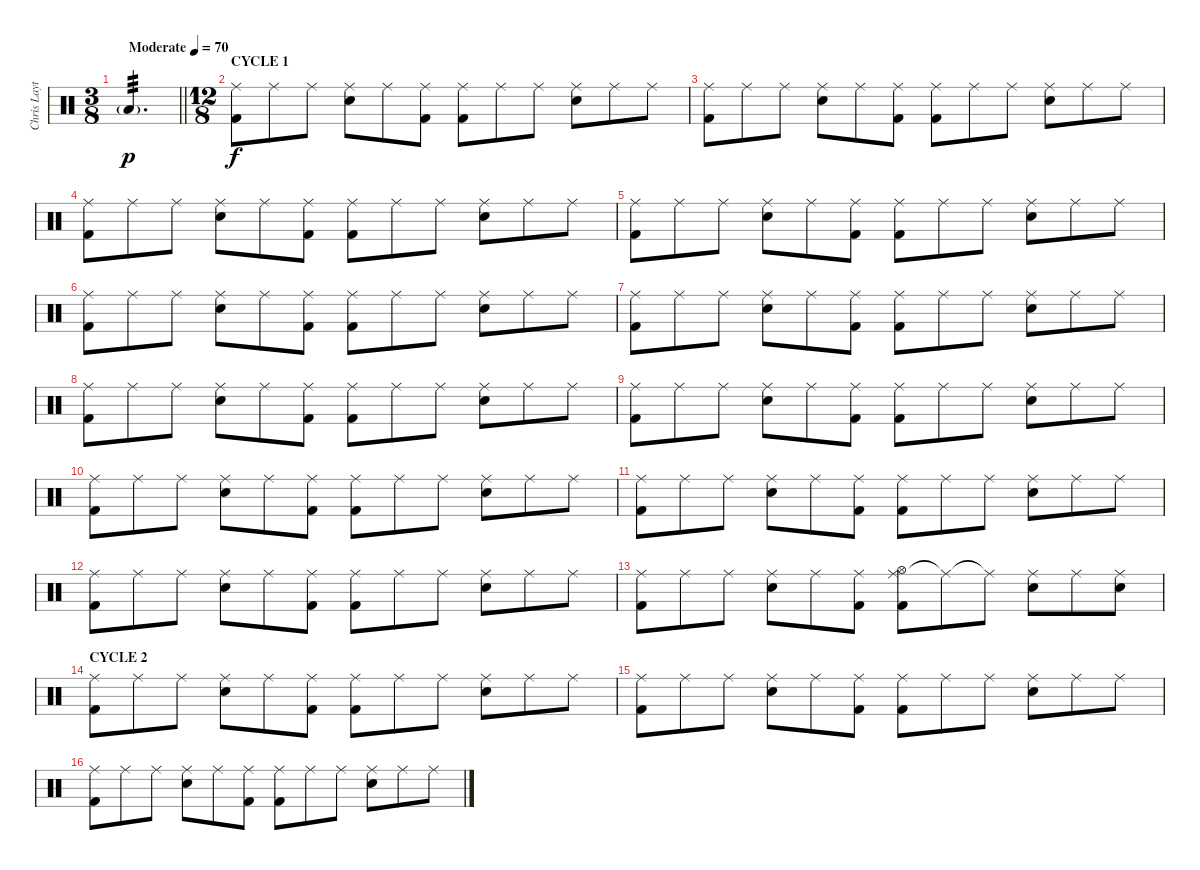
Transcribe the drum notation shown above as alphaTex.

\track ("Chris Layton" "Chris Layt") {instrument percussion}
\staff {score}
\articulation defaults
\ts (3 8)
\tempo (70 "Moderate")
\clef neutral
\barLineRight lightlight
\ks c "Low Floor Tom (hit)"{g}.4{d tp 3 dy p}
|
\ts (12 8)
\section ("" "CYCLE 1")
("Ride (middle)" "Kick (hit) 2").8{dy f} "Ride (middle)".8 "Ride (middle)".8 ("Ride (middle)" "Snare (hit) 2").8 "Ride (middle)".8 ("Ride (middle)" "Kick (hit) 2").8 ("Ride (middle)" "Kick (hit) 2").8 "Ride (middle)".8 "Ride (middle)".8 ("Ride (middle)" "Snare (hit) 2").8 "Ride (middle)".8 "Ride (middle)".8 |
("Ride (middle)" "Kick (hit) 2").8 "Ride (middle)".8 "Ride (middle)".8 ("Ride (middle)" "Snare (hit) 2").8 "Ride (middle)".8 ("Ride (middle)" "Kick (hit) 2").8 ("Ride (middle)" "Kick (hit) 2").8 "Ride (middle)".8 "Ride (middle)".8 ("Ride (middle)" "Snare (hit) 2").8 "Ride (middle)".8 "Ride (middle)".8 |
("Ride (middle)" "Kick (hit) 2").8 "Ride (middle)".8 "Ride (middle)".8 ("Ride (middle)" "Snare (hit) 2").8 "Ride (middle)".8 ("Ride (middle)" "Kick (hit) 2").8 ("Ride (middle)" "Kick (hit) 2").8 "Ride (middle)".8 "Ride (middle)".8 ("Ride (middle)" "Snare (hit) 2").8 "Ride (middle)".8 "Ride (middle)".8 |
("Ride (middle)" "Kick (hit) 2").8 "Ride (middle)".8 "Ride (middle)".8 ("Ride (middle)" "Snare (hit) 2").8 "Ride (middle)".8 ("Ride (middle)" "Kick (hit) 2").8 ("Ride (middle)" "Kick (hit) 2").8 "Ride (middle)".8 "Ride (middle)".8 ("Ride (middle)" "Snare (hit) 2").8 "Ride (middle)".8 "Ride (middle)".8 |
("Ride (middle)" "Kick (hit) 2").8 "Ride (middle)".8 "Ride (middle)".8 ("Ride (middle)" "Snare (hit) 2").8 "Ride (middle)".8 ("Ride (middle)" "Kick (hit) 2").8 ("Ride (middle)" "Kick (hit) 2").8 "Ride (middle)".8 "Ride (middle)".8 ("Ride (middle)" "Snare (hit) 2").8 "Ride (middle)".8 "Ride (middle)".8 |
("Ride (middle)" "Kick (hit) 2").8 "Ride (middle)".8 "Ride (middle)".8 ("Ride (middle)" "Snare (hit) 2").8 "Ride (middle)".8 ("Ride (middle)" "Kick (hit) 2").8 ("Ride (middle)" "Kick (hit) 2").8 "Ride (middle)".8 "Ride (middle)".8 ("Ride (middle)" "Snare (hit) 2").8 "Ride (middle)".8 "Ride (middle)".8 |
("Ride (middle)" "Kick (hit) 2").8 "Ride (middle)".8 "Ride (middle)".8 ("Ride (middle)" "Snare (hit) 2").8 "Ride (middle)".8 ("Ride (middle)" "Kick (hit) 2").8 ("Ride (middle)" "Kick (hit) 2").8 "Ride (middle)".8 "Ride (middle)".8 ("Ride (middle)" "Snare (hit) 2").8 "Ride (middle)".8 "Ride (middle)".8 |
("Ride (middle)" "Kick (hit) 2").8 "Ride (middle)".8 "Ride (middle)".8 ("Ride (middle)" "Snare (hit) 2").8 "Ride (middle)".8 ("Ride (middle)" "Kick (hit) 2").8 ("Ride (middle)" "Kick (hit) 2").8 "Ride (middle)".8 "Ride (middle)".8 ("Ride (middle)" "Snare (hit) 2").8 "Ride (middle)".8 "Ride (middle)".8 |
("Ride (middle)" "Kick (hit) 2").8 "Ride (middle)".8 "Ride (middle)".8 ("Ride (middle)" "Snare (hit) 2").8 "Ride (middle)".8 ("Ride (middle)" "Kick (hit) 2").8 ("Ride (middle)" "Kick (hit) 2").8 "Ride (middle)".8 "Ride (middle)".8 ("Ride (middle)" "Snare (hit) 2").8 "Ride (middle)".8 "Ride (middle)".8 |
("Ride (middle)" "Kick (hit) 2").8 "Ride (middle)".8 "Ride (middle)".8 ("Ride (middle)" "Snare (hit) 2").8 "Ride (middle)".8 ("Ride (middle)" "Kick (hit) 2").8 ("Ride (middle)" "Kick (hit) 2").8 "Ride (middle)".8 "Ride (middle)".8 ("Ride (middle)" "Snare (hit) 2").8 "Ride (middle)".8 "Ride (middle)".8 |
("Ride (middle)" "Kick (hit) 2").8 "Ride (middle)".8 "Ride (middle)".8 ("Ride (middle)" "Snare (hit) 2").8 "Ride (middle)".8 ("Ride (middle)" "Kick (hit) 2").8 ("Ride (middle)" "Kick (hit) 2").8 "Ride (middle)".8 "Ride (middle)".8 ("Ride (middle)" "Snare (hit) 2").8 "Ride (middle)".8 "Ride (middle)".8 |
("Ride (middle)" "Kick (hit) 2").8 "Ride (middle)".8 "Ride (middle)".8 ("Ride (middle)" "Snare (hit) 2").8 "Ride (middle)".8 ("Ride (middle)" "Kick (hit) 2").8 ("Ride (middle)" "Hi-Hat (open)" "Kick (hit) 2").8 "Ride (middle)"{t}.8 "Ride (middle)"{t}.8 ("Ride (middle)" "Snare (hit) 2").8 "Ride (middle)".8 ("Ride (middle)" "Snare (hit) 2").8 |
\section ("" "CYCLE 2")
("Ride (middle)" "Kick (hit) 2").8 "Ride (middle)".8 "Ride (middle)".8 ("Ride (middle)" "Snare (hit) 2").8 "Ride (middle)".8 ("Ride (middle)" "Kick (hit) 2").8 ("Ride (middle)" "Kick (hit) 2").8 "Ride (middle)".8 "Ride (middle)".8 ("Ride (middle)" "Snare (hit) 2").8 "Ride (middle)".8 "Ride (middle)".8 |
("Ride (middle)" "Kick (hit) 2").8 "Ride (middle)".8 "Ride (middle)".8 ("Ride (middle)" "Snare (hit) 2").8 "Ride (middle)".8 ("Ride (middle)" "Kick (hit) 2").8 ("Ride (middle)" "Kick (hit) 2").8 "Ride (middle)".8 "Ride (middle)".8 ("Ride (middle)" "Snare (hit) 2").8 "Ride (middle)".8 "Ride (middle)".8 |
("Ride (middle)" "Kick (hit) 2").8 "Ride (middle)".8 "Ride (middle)".8 ("Ride (middle)" "Snare (hit) 2").8 "Ride (middle)".8 ("Ride (middle)" "Kick (hit) 2").8 ("Ride (middle)" "Kick (hit) 2").8 "Ride (middle)".8 "Ride (middle)".8 ("Ride (middle)" "Snare (hit) 2").8 "Ride (middle)".8 "Ride (middle)".8
